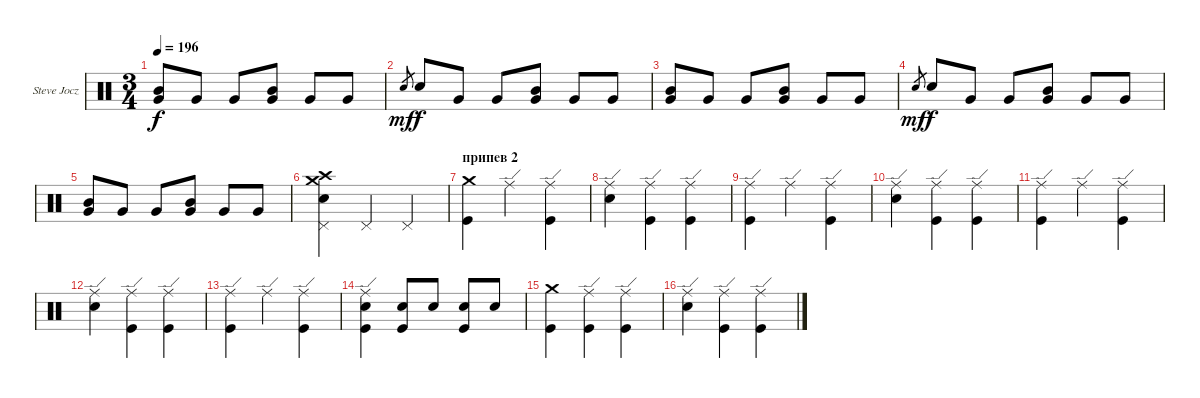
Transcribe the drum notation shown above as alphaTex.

\defaultSystemsLayout 4
\bracketExtendMode groupsimilarinstruments
\firstSystemTrackNameOrientation horizontal
\otherSystemsTrackNameOrientation horizontal
\track ("Steve Jocz " "Steve Jocz") {instrument percussion}
\staff {score}
\articulation defaults
\ts (3 4)
\tempo 196
\clef neutral
\ks c
("Mid Tom (hit)" "Very Low Tom (hit)").8{dy f} "Very Low Tom (hit)".8 "Very Low Tom (hit)".8 ("Mid Tom (hit)" "Very Low Tom (hit)").8 "Very Low Tom (hit)".8 "Very Low Tom (hit)".8 |
"Snare (hit) 2".8{gr dy mf} "Snare (hit) 2".8{dy f} "Very Low Tom (hit)".8 "Very Low Tom (hit)".8 ("Mid Tom (hit)" "Very Low Tom (hit)").8 "Very Low Tom (hit)".8 "Very Low Tom (hit)".8 |
("Mid Tom (hit)" "Very Low Tom (hit)").8 "Very Low Tom (hit)".8 "Very Low Tom (hit)".8 ("Mid Tom (hit)" "Very Low Tom (hit)").8 "Very Low Tom (hit)".8 "Very Low Tom (hit)".8 |
"Snare (hit) 2".8{gr dy mf} "Snare (hit) 2".8{dy f} "Very Low Tom (hit)".8 "Very Low Tom (hit)".8 ("Mid Tom (hit)" "Very Low Tom (hit)").8 "Very Low Tom (hit)".8 "Very Low Tom (hit)".8 |
("Mid Tom (hit)" "Very Low Tom (hit)").8 "Very Low Tom (hit)".8 "Very Low Tom (hit)".8 ("Mid Tom (hit)" "Very Low Tom (hit)").8 "Very Low Tom (hit)".8 "Very Low Tom (hit)".8 |
("Pedal Hi-Hat (hit)" "Crash high (hit)" "Crash medium (hit)" "Snare (hit) 2").4 "Pedal Hi-Hat (hit)".4 "Pedal Hi-Hat (hit)".4 |
\section ("" "припев 2")
("Crash medium (hit)" "Kick (hit)").4 "Ride (edge)".4 ("Ride (edge)" "Kick (hit)").4 |
("Ride (edge)" "Snare (hit) 2").4 ("Ride (edge)" "Kick (hit)").4 ("Ride (edge)" "Kick (hit)").4 |
("Ride (edge)" "Kick (hit)").4 "Ride (edge)".4 ("Ride (edge)" "Kick (hit)").4 |
("Ride (edge)" "Snare (hit) 2").4 ("Ride (edge)" "Kick (hit)").4 ("Ride (edge)" "Kick (hit)").4 |
("Ride (edge)" "Kick (hit)").4 "Ride (edge)".4 ("Ride (edge)" "Kick (hit)").4 |
("Ride (edge)" "Snare (hit) 2").4 ("Ride (edge)" "Kick (hit)").4 ("Ride (edge)" "Kick (hit)").4 |
("Ride (edge)" "Kick (hit)").4 "Ride (edge)".4 ("Ride (edge)" "Kick (hit)").4 |
("Ride (edge)" "Snare (hit) 2" "Kick (hit)").4 ("Snare (hit) 2" "Kick (hit)").8 "Snare (hit) 2".8 ("Snare (hit) 2" "Kick (hit)").8 "Snare (hit) 2".8 |
("Crash medium (hit)" "Kick (hit)").4 ("Ride (edge)" "Kick (hit)").4 ("Ride (edge)" "Kick (hit)").4 |
("Ride (edge)" "Snare (hit) 2").4 ("Ride (edge)" "Kick (hit)").4 ("Ride (edge)" "Kick (hit)").4
